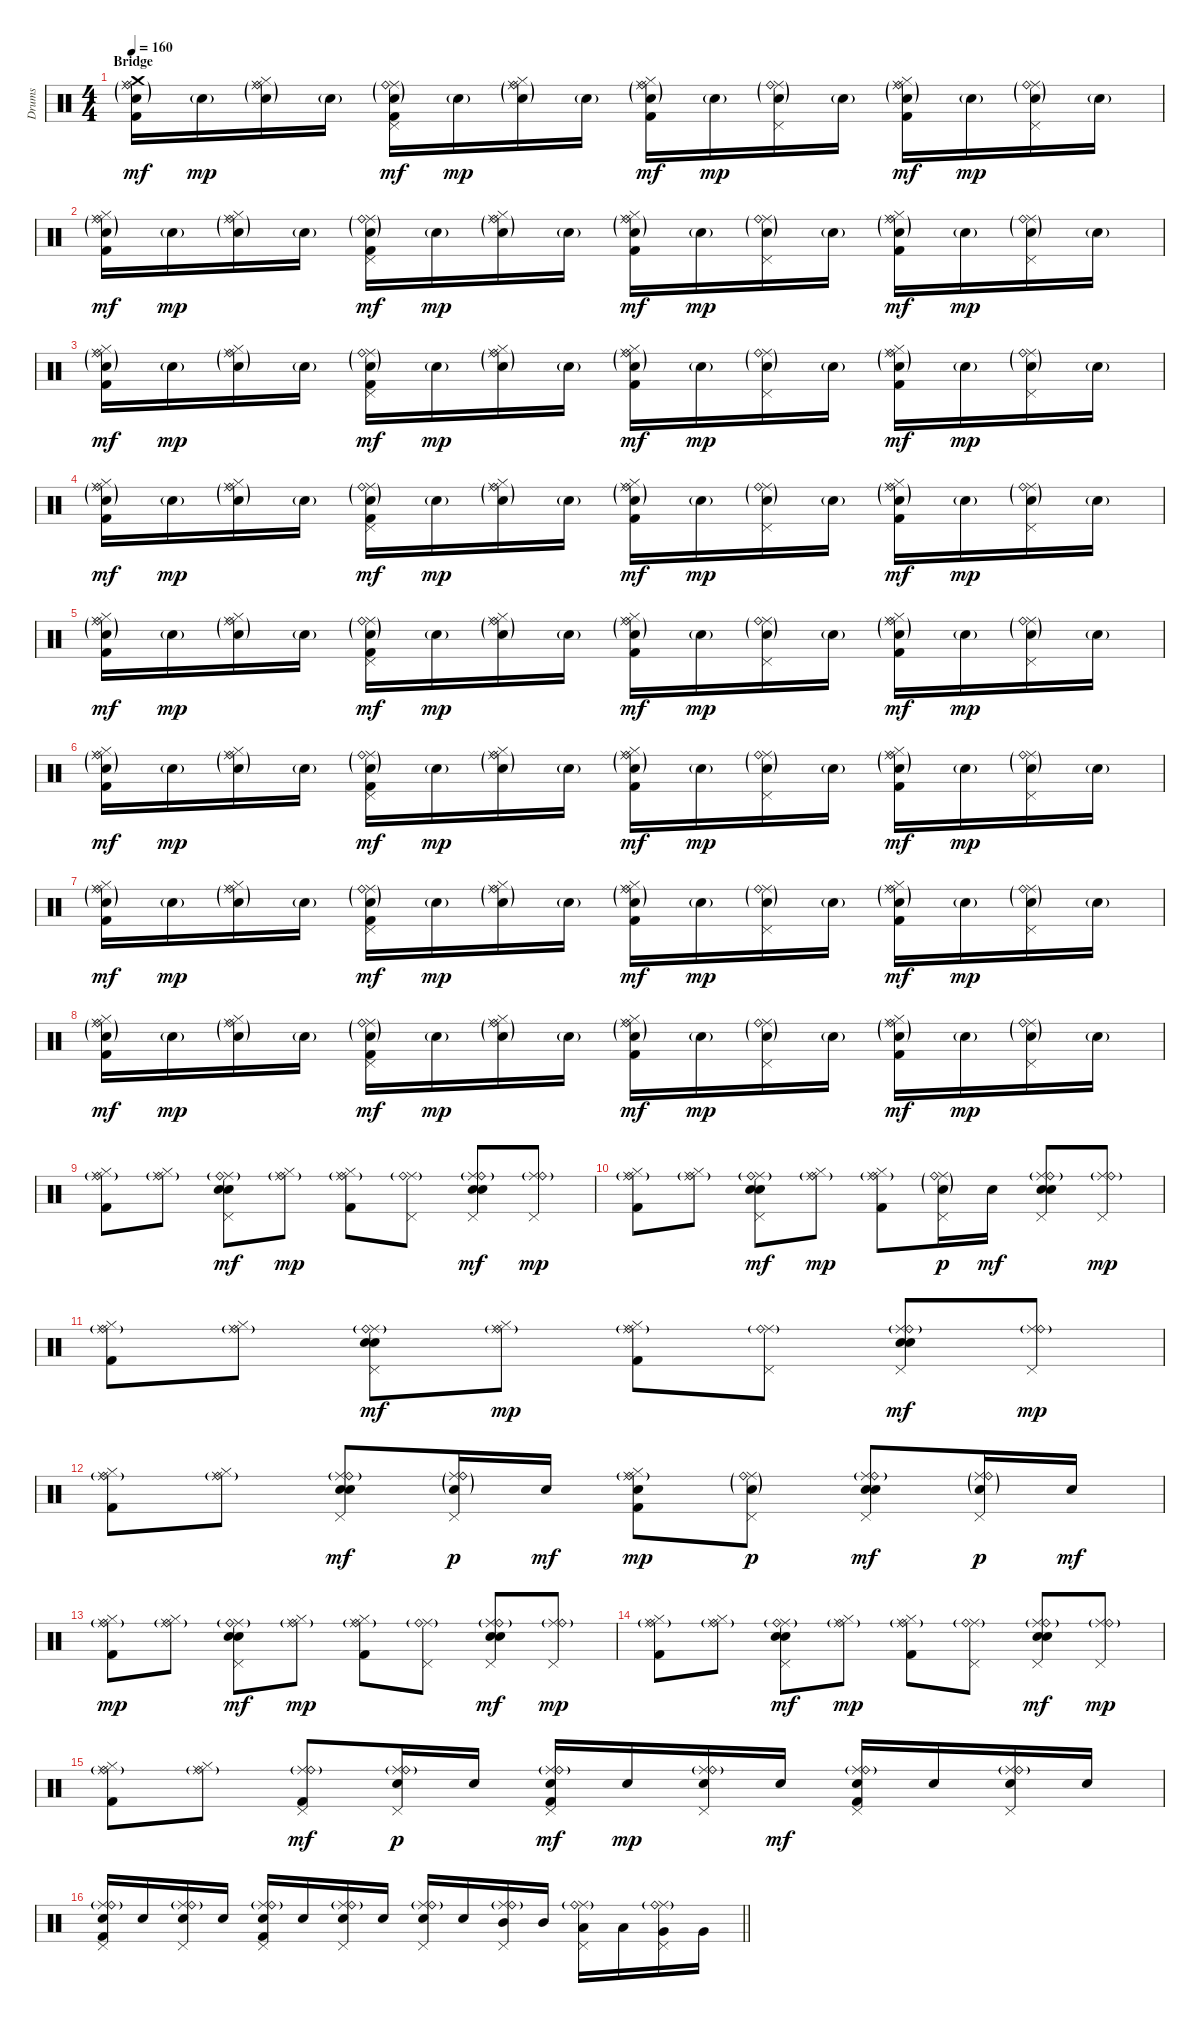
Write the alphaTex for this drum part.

\track ("Drums" "Drums") {instrument percussion}
\staff {score}
\articulation defaults
\ts (4 4)
\section ("" "Bridge")
\tempo 160
\clef neutral
\ks c
("Crash medium (hit)" "Ride (middle)"{g} "Ride (bell)"{g} "Electric Snare (hit)"{g} "Kick (hit) 2").16{dy mf} "Electric Snare (hit)"{g}.16{dy mp} ("Hi-Hat (closed)" "Ride (middle)"{g} "Ride (bell)"{g} "Electric Snare (hit)"{g}).16 "Electric Snare (hit)"{g}.16 ("Pedal Hi-Hat (hit)" "Ride (middle)"{g} "Ride (bell)"{g} "Electric Snare (hit)"{g} "Kick (hit) 2").16{dy mf} "Electric Snare (hit)"{g}.16{dy mp} ("Hi-Hat (closed)" "Ride (middle)"{g} "Ride (bell)"{g} "Electric Snare (hit)"{g}).16 "Electric Snare (hit)"{g}.16 ("Hi-Hat (closed)" "Ride (middle)"{g} "Ride (bell)"{g} "Electric Snare (hit)"{g} "Kick (hit) 2").16{dy mf} "Electric Snare (hit)"{g}.16{dy mp} ("Pedal Hi-Hat (hit)" "Ride (middle)"{g} "Ride (bell)"{g} "Electric Snare (hit)"{g}).16 "Electric Snare (hit)"{g}.16 ("Hi-Hat (closed)" "Ride (middle)"{g} "Ride (bell)"{g} "Electric Snare (hit)"{g} "Kick (hit) 2").16{dy mf} "Electric Snare (hit)"{g}.16{dy mp} ("Pedal Hi-Hat (hit)" "Ride (middle)"{g} "Ride (bell)"{g} "Electric Snare (hit)"{g}).16 "Electric Snare (hit)"{g}.16 |
("Hi-Hat (closed)" "Ride (middle)"{g} "Ride (bell)"{g} "Electric Snare (hit)"{g} "Kick (hit) 2").16{dy mf} "Electric Snare (hit)"{g}.16{dy mp} ("Hi-Hat (closed)" "Ride (middle)"{g} "Ride (bell)"{g} "Electric Snare (hit)"{g}).16 "Electric Snare (hit)"{g}.16 ("Pedal Hi-Hat (hit)" "Ride (middle)"{g} "Ride (bell)"{g} "Electric Snare (hit)"{g} "Kick (hit) 2").16{dy mf} "Electric Snare (hit)"{g}.16{dy mp} ("Hi-Hat (closed)" "Ride (middle)"{g} "Ride (bell)"{g} "Electric Snare (hit)"{g}).16 "Electric Snare (hit)"{g}.16 ("Hi-Hat (closed)" "Ride (middle)"{g} "Ride (bell)"{g} "Electric Snare (hit)"{g} "Kick (hit) 2").16{dy mf} "Electric Snare (hit)"{g}.16{dy mp} ("Pedal Hi-Hat (hit)" "Ride (middle)"{g} "Ride (bell)"{g} "Electric Snare (hit)"{g}).16 "Electric Snare (hit)"{g}.16 ("Hi-Hat (closed)" "Ride (middle)"{g} "Ride (bell)"{g} "Electric Snare (hit)"{g} "Kick (hit) 2").16{dy mf} "Electric Snare (hit)"{g}.16{dy mp} ("Pedal Hi-Hat (hit)" "Ride (middle)"{g} "Ride (bell)"{g} "Electric Snare (hit)"{g}).16 "Electric Snare (hit)"{g}.16 |
("Hi-Hat (closed)" "Ride (middle)"{g} "Ride (bell)"{g} "Electric Snare (hit)"{g} "Kick (hit) 2").16{dy mf} "Electric Snare (hit)"{g}.16{dy mp} ("Hi-Hat (closed)" "Ride (middle)"{g} "Ride (bell)"{g} "Electric Snare (hit)"{g}).16 "Electric Snare (hit)"{g}.16 ("Pedal Hi-Hat (hit)" "Ride (middle)"{g} "Ride (bell)"{g} "Electric Snare (hit)"{g} "Kick (hit) 2").16{dy mf} "Electric Snare (hit)"{g}.16{dy mp} ("Hi-Hat (closed)" "Ride (middle)"{g} "Ride (bell)"{g} "Electric Snare (hit)"{g}).16 "Electric Snare (hit)"{g}.16 ("Hi-Hat (closed)" "Ride (middle)"{g} "Ride (bell)"{g} "Electric Snare (hit)"{g} "Kick (hit) 2").16{dy mf} "Electric Snare (hit)"{g}.16{dy mp} ("Pedal Hi-Hat (hit)" "Ride (middle)"{g} "Ride (bell)"{g} "Electric Snare (hit)"{g}).16 "Electric Snare (hit)"{g}.16 ("Hi-Hat (closed)" "Ride (middle)"{g} "Ride (bell)"{g} "Electric Snare (hit)"{g} "Kick (hit) 2").16{dy mf} "Electric Snare (hit)"{g}.16{dy mp} ("Pedal Hi-Hat (hit)" "Ride (middle)"{g} "Ride (bell)"{g} "Electric Snare (hit)"{g}).16 "Electric Snare (hit)"{g}.16 |
("Hi-Hat (closed)" "Ride (middle)"{g} "Ride (bell)"{g} "Electric Snare (hit)"{g} "Kick (hit) 2").16{dy mf} "Electric Snare (hit)"{g}.16{dy mp} ("Hi-Hat (closed)" "Ride (middle)"{g} "Ride (bell)"{g} "Electric Snare (hit)"{g}).16 "Electric Snare (hit)"{g}.16 ("Pedal Hi-Hat (hit)" "Ride (middle)"{g} "Ride (bell)"{g} "Electric Snare (hit)"{g} "Kick (hit) 2").16{dy mf} "Electric Snare (hit)"{g}.16{dy mp} ("Hi-Hat (closed)" "Ride (middle)"{g} "Ride (bell)"{g} "Electric Snare (hit)"{g}).16 "Electric Snare (hit)"{g}.16 ("Hi-Hat (closed)" "Ride (middle)"{g} "Ride (bell)"{g} "Electric Snare (hit)"{g} "Kick (hit) 2").16{dy mf} "Electric Snare (hit)"{g}.16{dy mp} ("Pedal Hi-Hat (hit)" "Ride (middle)"{g} "Ride (bell)"{g} "Electric Snare (hit)"{g}).16 "Electric Snare (hit)"{g}.16 ("Hi-Hat (closed)" "Ride (middle)"{g} "Ride (bell)"{g} "Electric Snare (hit)"{g} "Kick (hit) 2").16{dy mf} "Electric Snare (hit)"{g}.16{dy mp} ("Pedal Hi-Hat (hit)" "Ride (middle)"{g} "Ride (bell)"{g} "Electric Snare (hit)"{g}).16 "Electric Snare (hit)"{g}.16 |
("Hi-Hat (closed)" "Ride (middle)"{g} "Ride (bell)"{g} "Electric Snare (hit)"{g} "Kick (hit) 2").16{dy mf} "Electric Snare (hit)"{g}.16{dy mp} ("Hi-Hat (closed)" "Ride (middle)"{g} "Ride (bell)"{g} "Electric Snare (hit)"{g}).16 "Electric Snare (hit)"{g}.16 ("Pedal Hi-Hat (hit)" "Ride (middle)"{g} "Ride (bell)"{g} "Electric Snare (hit)"{g} "Kick (hit) 2").16{dy mf} "Electric Snare (hit)"{g}.16{dy mp} ("Hi-Hat (closed)" "Ride (middle)"{g} "Ride (bell)"{g} "Electric Snare (hit)"{g}).16 "Electric Snare (hit)"{g}.16 ("Hi-Hat (closed)" "Ride (middle)"{g} "Ride (bell)"{g} "Electric Snare (hit)"{g} "Kick (hit) 2").16{dy mf} "Electric Snare (hit)"{g}.16{dy mp} ("Pedal Hi-Hat (hit)" "Ride (middle)"{g} "Ride (bell)"{g} "Electric Snare (hit)"{g}).16 "Electric Snare (hit)"{g}.16 ("Hi-Hat (closed)" "Ride (middle)"{g} "Ride (bell)"{g} "Electric Snare (hit)"{g} "Kick (hit) 2").16{dy mf} "Electric Snare (hit)"{g}.16{dy mp} ("Pedal Hi-Hat (hit)" "Ride (middle)"{g} "Ride (bell)"{g} "Electric Snare (hit)"{g}).16 "Electric Snare (hit)"{g}.16 |
("Hi-Hat (closed)" "Ride (middle)"{g} "Ride (bell)"{g} "Electric Snare (hit)"{g} "Kick (hit) 2").16{dy mf} "Electric Snare (hit)"{g}.16{dy mp} ("Hi-Hat (closed)" "Ride (middle)"{g} "Ride (bell)"{g} "Electric Snare (hit)"{g}).16 "Electric Snare (hit)"{g}.16 ("Pedal Hi-Hat (hit)" "Ride (middle)"{g} "Ride (bell)"{g} "Electric Snare (hit)"{g} "Kick (hit) 2").16{dy mf} "Electric Snare (hit)"{g}.16{dy mp} ("Hi-Hat (closed)" "Ride (middle)"{g} "Ride (bell)"{g} "Electric Snare (hit)"{g}).16 "Electric Snare (hit)"{g}.16 ("Hi-Hat (closed)" "Ride (middle)"{g} "Ride (bell)"{g} "Electric Snare (hit)"{g} "Kick (hit) 2").16{dy mf} "Electric Snare (hit)"{g}.16{dy mp} ("Pedal Hi-Hat (hit)" "Ride (middle)"{g} "Ride (bell)"{g} "Electric Snare (hit)"{g}).16 "Electric Snare (hit)"{g}.16 ("Hi-Hat (closed)" "Ride (middle)"{g} "Ride (bell)"{g} "Electric Snare (hit)"{g} "Kick (hit) 2").16{dy mf} "Electric Snare (hit)"{g}.16{dy mp} ("Pedal Hi-Hat (hit)" "Ride (middle)"{g} "Ride (bell)"{g} "Electric Snare (hit)"{g}).16 "Electric Snare (hit)"{g}.16 |
("Hi-Hat (closed)" "Ride (middle)"{g} "Ride (bell)"{g} "Electric Snare (hit)"{g} "Kick (hit) 2").16{dy mf} "Electric Snare (hit)"{g}.16{dy mp} ("Hi-Hat (closed)" "Ride (middle)"{g} "Ride (bell)"{g} "Electric Snare (hit)"{g}).16 "Electric Snare (hit)"{g}.16 ("Pedal Hi-Hat (hit)" "Ride (middle)"{g} "Ride (bell)"{g} "Electric Snare (hit)"{g} "Kick (hit) 2").16{dy mf} "Electric Snare (hit)"{g}.16{dy mp} ("Hi-Hat (closed)" "Ride (middle)"{g} "Ride (bell)"{g} "Electric Snare (hit)"{g}).16 "Electric Snare (hit)"{g}.16 ("Hi-Hat (closed)" "Ride (middle)"{g} "Ride (bell)"{g} "Electric Snare (hit)"{g} "Kick (hit) 2").16{dy mf} "Electric Snare (hit)"{g}.16{dy mp} ("Pedal Hi-Hat (hit)" "Ride (middle)"{g} "Ride (bell)"{g} "Electric Snare (hit)"{g}).16 "Electric Snare (hit)"{g}.16 ("Hi-Hat (closed)" "Ride (middle)"{g} "Ride (bell)"{g} "Electric Snare (hit)"{g} "Kick (hit) 2").16{dy mf} "Electric Snare (hit)"{g}.16{dy mp} ("Pedal Hi-Hat (hit)" "Ride (middle)"{g} "Ride (bell)"{g} "Electric Snare (hit)"{g}).16 "Electric Snare (hit)"{g}.16 |
("Hi-Hat (closed)" "Ride (middle)"{g} "Ride (bell)"{g} "Electric Snare (hit)"{g} "Kick (hit) 2").16{dy mf} "Electric Snare (hit)"{g}.16{dy mp} ("Hi-Hat (closed)" "Ride (middle)"{g} "Ride (bell)"{g} "Electric Snare (hit)"{g}).16 "Electric Snare (hit)"{g}.16 ("Pedal Hi-Hat (hit)" "Ride (middle)"{g} "Ride (bell)"{g} "Electric Snare (hit)"{g} "Kick (hit) 2").16{dy mf} "Electric Snare (hit)"{g}.16{dy mp} ("Hi-Hat (closed)" "Ride (middle)"{g} "Ride (bell)"{g} "Electric Snare (hit)"{g}).16 "Electric Snare (hit)"{g}.16 ("Hi-Hat (closed)" "Ride (middle)"{g} "Ride (bell)"{g} "Electric Snare (hit)"{g} "Kick (hit) 2").16{dy mf} "Electric Snare (hit)"{g}.16{dy mp} ("Pedal Hi-Hat (hit)" "Ride (middle)"{g} "Ride (bell)"{g} "Electric Snare (hit)"{g}).16 "Electric Snare (hit)"{g}.16 ("Hi-Hat (closed)" "Ride (middle)"{g} "Ride (bell)"{g} "Electric Snare (hit)"{g} "Kick (hit) 2").16{dy mf} "Electric Snare (hit)"{g}.16{dy mp} ("Pedal Hi-Hat (hit)" "Ride (middle)"{g} "Ride (bell)"{g} "Electric Snare (hit)"{g}).16 "Electric Snare (hit)"{g}.16 |
("Hi-Hat (closed)" "Ride (middle)"{g} "Ride (bell)"{g} "Kick (hit) 2").8 ("Hi-Hat (closed)" "Ride (middle)"{g} "Ride (bell)"{g}).8 ("Pedal Hi-Hat (hit)" "Ride (middle)"{g} "Ride (bell)"{g} "Electric Snare (hit)" "Snare (hit) 2").8{dy mf} ("Hi-Hat (closed)" "Ride (middle)"{g} "Ride (bell)"{g}).8{dy mp} ("Hi-Hat (closed)" "Ride (middle)"{g} "Ride (bell)"{g} "Kick (hit) 2").8 ("Pedal Hi-Hat (hit)" "Ride (middle)"{g} "Ride (bell)"{g}).8 ("Pedal Hi-Hat (hit)" "Ride (middle)"{g} "Ride (bell)"{g} "Electric Snare (hit)" "Snare (hit) 2").8{dy mf} ("Pedal Hi-Hat (hit)" "Ride (middle)"{g} "Ride (bell)"{g}).8{dy mp} |
("Hi-Hat (closed)" "Ride (middle)"{g} "Ride (bell)"{g} "Kick (hit) 2").8 ("Hi-Hat (closed)" "Ride (middle)"{g} "Ride (bell)"{g}).8 ("Pedal Hi-Hat (hit)" "Ride (middle)"{g} "Ride (bell)"{g} "Electric Snare (hit)" "Snare (hit) 2").8{dy mf} ("Hi-Hat (closed)" "Ride (middle)"{g} "Ride (bell)"{g}).8{dy mp} ("Hi-Hat (closed)" "Ride (middle)"{g} "Ride (bell)"{g} "Kick (hit) 2").8 ("Pedal Hi-Hat (hit)" "Ride (middle)"{g} "Ride (bell)"{g} "Electric Snare (hit)"{g}).16{dy p} "Electric Snare (hit)".16{dy mf} ("Pedal Hi-Hat (hit)" "Ride (middle)"{g} "Ride (bell)"{g} "Electric Snare (hit)" "Snare (hit) 2").8 ("Pedal Hi-Hat (hit)" "Ride (middle)"{g} "Ride (bell)"{g}).8{dy mp} |
("Hi-Hat (closed)" "Ride (middle)"{g} "Ride (bell)"{g} "Kick (hit) 2").8 ("Hi-Hat (closed)" "Ride (middle)"{g} "Ride (bell)"{g}).8 ("Pedal Hi-Hat (hit)" "Ride (middle)"{g} "Ride (bell)"{g} "Electric Snare (hit)" "Snare (hit) 2").8{dy mf} ("Hi-Hat (closed)" "Ride (middle)"{g} "Ride (bell)"{g}).8{dy mp} ("Hi-Hat (closed)" "Ride (middle)"{g} "Ride (bell)"{g} "Kick (hit) 2").8 ("Pedal Hi-Hat (hit)" "Ride (middle)"{g} "Ride (bell)"{g}).8 ("Pedal Hi-Hat (hit)" "Ride (middle)"{g} "Ride (bell)"{g} "Electric Snare (hit)" "Snare (hit) 2").8{dy mf} ("Pedal Hi-Hat (hit)" "Ride (middle)"{g} "Ride (bell)"{g}).8{dy mp} |
("Hi-Hat (closed)" "Ride (middle)"{g} "Ride (bell)"{g} "Kick (hit) 2").8 ("Hi-Hat (closed)" "Ride (middle)"{g} "Ride (bell)"{g}).8 ("Pedal Hi-Hat (hit)" "Ride (middle)"{g} "Ride (bell)"{g} "Electric Snare (hit)" "Snare (hit) 2").8{dy mf} ("Pedal Hi-Hat (hit)" "Ride (middle)"{g} "Ride (bell)"{g} "Electric Snare (hit)"{g}).16{dy p} "Electric Snare (hit)".16{dy mf} ("Hi-Hat (closed)" "Ride (middle)"{g} "Ride (bell)"{g} "Electric Snare (hit)" "Kick (hit) 2").8{dy mp} ("Pedal Hi-Hat (hit)" "Ride (middle)"{g} "Ride (bell)"{g} "Electric Snare (hit)"{g}).8{dy p} ("Pedal Hi-Hat (hit)" "Ride (middle)"{g} "Ride (bell)"{g} "Electric Snare (hit)" "Snare (hit) 2").8{dy mf} ("Pedal Hi-Hat (hit)" "Ride (middle)"{g} "Ride (bell)"{g} "Electric Snare (hit)"{g}).16{dy p} "Electric Snare (hit)".16{dy mf} |
("Hi-Hat (closed)" "Ride (middle)"{g} "Ride (bell)"{g} "Kick (hit) 2").8{dy mp} ("Hi-Hat (closed)" "Ride (middle)"{g} "Ride (bell)"{g}).8 ("Pedal Hi-Hat (hit)" "Ride (middle)"{g} "Ride (bell)"{g} "Electric Snare (hit)" "Snare (hit) 2").8{dy mf} ("Hi-Hat (closed)" "Ride (middle)"{g} "Ride (bell)"{g}).8{dy mp} ("Hi-Hat (closed)" "Ride (middle)"{g} "Ride (bell)"{g} "Kick (hit) 2").8 ("Pedal Hi-Hat (hit)" "Ride (middle)"{g} "Ride (bell)"{g}).8 ("Pedal Hi-Hat (hit)" "Ride (middle)"{g} "Ride (bell)"{g} "Electric Snare (hit)" "Snare (hit) 2").8{dy mf} ("Pedal Hi-Hat (hit)" "Ride (middle)"{g} "Ride (bell)"{g}).8{dy mp} |
("Hi-Hat (closed)" "Ride (middle)"{g} "Ride (bell)"{g} "Kick (hit) 2").8 ("Hi-Hat (closed)" "Ride (middle)"{g} "Ride (bell)"{g}).8 ("Pedal Hi-Hat (hit)" "Ride (middle)"{g} "Ride (bell)"{g} "Electric Snare (hit)" "Snare (hit) 2").8{dy mf} ("Hi-Hat (closed)" "Ride (middle)"{g} "Ride (bell)"{g}).8{dy mp} ("Hi-Hat (closed)" "Ride (middle)"{g} "Ride (bell)"{g} "Kick (hit) 2").8 ("Pedal Hi-Hat (hit)" "Ride (middle)"{g} "Ride (bell)"{g}).8 ("Pedal Hi-Hat (hit)" "Ride (middle)"{g} "Ride (bell)"{g} "Electric Snare (hit)" "Snare (hit) 2").8{dy mf} ("Pedal Hi-Hat (hit)" "Ride (middle)"{g} "Ride (bell)"{g}).8{dy mp} |
("Hi-Hat (closed)" "Ride (middle)"{g} "Ride (bell)"{g} "Kick (hit) 2").8 ("Hi-Hat (closed)" "Ride (middle)"{g} "Ride (bell)"{g}).8 ("Pedal Hi-Hat (hit)" "Ride (middle)"{g} "Ride (bell)"{g} "Kick (hit) 2").8{dy mf} ("Pedal Hi-Hat (hit)" "Ride (middle)"{g} "Ride (bell)"{g} "Electric Snare (hit)").16{dy p} "Electric Snare (hit)".16 ("Pedal Hi-Hat (hit)" "Ride (middle)"{g} "Ride (bell)"{g} "Electric Snare (hit)" "Kick (hit) 2").16{dy mf} "Electric Snare (hit)".16{dy mp} ("Pedal Hi-Hat (hit)" "Ride (middle)"{g} "Ride (bell)"{g} "Electric Snare (hit)").16 "Electric Snare (hit)".16{dy mf} ("Pedal Hi-Hat (hit)" "Ride (middle)"{g} "Ride (bell)"{g} "Electric Snare (hit)" "Kick (hit) 2").16 "Electric Snare (hit)".16 ("Pedal Hi-Hat (hit)" "Ride (middle)"{g} "Ride (bell)"{g} "Electric Snare (hit)").16 "Electric Snare (hit)".16 |
\barLineRight lightlight
("Pedal Hi-Hat (hit)" "Ride (middle)"{g} "Ride (bell)"{g} "Electric Snare (hit)" "Kick (hit) 2").16 "Electric Snare (hit)".16 ("Pedal Hi-Hat (hit)" "Ride (middle)"{g} "Ride (bell)"{g} "Electric Snare (hit)").16 "Electric Snare (hit)".16 ("Pedal Hi-Hat (hit)" "Ride (middle)"{g} "Ride (bell)"{g} "Electric Snare (hit)" "Kick (hit) 2").16 "Electric Snare (hit)".16 ("Pedal Hi-Hat (hit)" "Ride (middle)"{g} "Ride (bell)"{g} "Electric Snare (hit)").16 "Electric Snare (hit)".16 ("Pedal Hi-Hat (hit)" "Ride (middle)"{g} "Ride (bell)"{g} "Electric Snare (hit)").16 "Electric Snare (hit)".16 ("Pedal Hi-Hat (hit)" "Ride (middle)"{g} "Ride (bell)"{g} "Mid Tom (hit)").16 "Mid Tom (hit)".16 ("Pedal Hi-Hat (hit)" "Ride (middle)"{g} "Ride (bell)"{g} "Low Tom (hit)").16 "Low Tom (hit)".16 ("Pedal Hi-Hat (hit)" "Ride (middle)"{g} "Ride (bell)"{g} "Very Low Tom (hit)").16 "Very Low Tom (hit)".16
